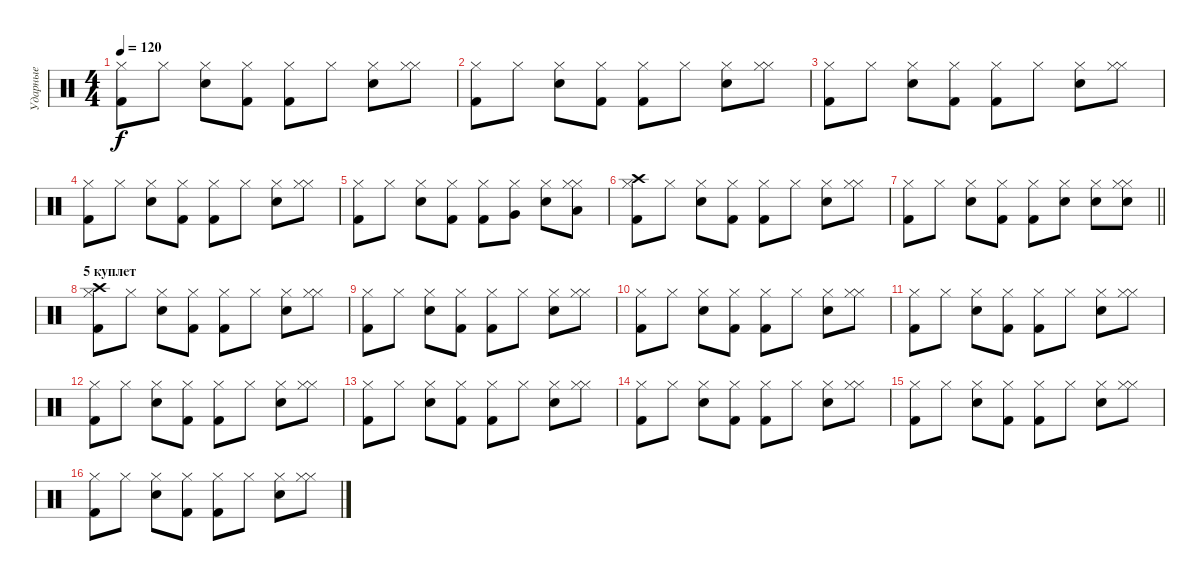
\track ("Ударные" "Ударные") {instrument percussion}
\staff {score}
\articulation defaults
\ts (4 4)
\tempo 120
\clef neutral
\ks c
("Kick (hit) 2" "Hi-Hat (closed)").8{dy f} "Hi-Hat (closed)".8 ("Electric Snare (hit)" "Hi-Hat (closed)").8 ("Kick (hit) 2" "Hi-Hat (closed)").8 ("Kick (hit) 2" "Hi-Hat (closed)").8 "Hi-Hat (closed)".8 ("Electric Snare (hit)" "Hi-Hat (closed)").8 ("Hi-Hat (closed)" "Hi-Hat (closed)").8 |
("Kick (hit) 2" "Hi-Hat (closed)").8 "Hi-Hat (closed)".8 ("Electric Snare (hit)" "Hi-Hat (closed)").8 ("Kick (hit) 2" "Hi-Hat (closed)").8 ("Kick (hit) 2" "Hi-Hat (closed)").8 "Hi-Hat (closed)".8 ("Electric Snare (hit)" "Hi-Hat (closed)").8 ("Hi-Hat (closed)" "Hi-Hat (closed)").8 |
("Kick (hit) 2" "Hi-Hat (closed)").8 "Hi-Hat (closed)".8 ("Electric Snare (hit)" "Hi-Hat (closed)").8 ("Kick (hit) 2" "Hi-Hat (closed)").8 ("Kick (hit) 2" "Hi-Hat (closed)").8 "Hi-Hat (closed)".8 ("Electric Snare (hit)" "Hi-Hat (closed)").8 ("Hi-Hat (closed)" "Hi-Hat (closed)").8 |
("Kick (hit) 2" "Hi-Hat (closed)").8 "Hi-Hat (closed)".8 ("Electric Snare (hit)" "Hi-Hat (closed)").8 ("Kick (hit) 2" "Hi-Hat (closed)").8 ("Kick (hit) 2" "Hi-Hat (closed)").8 "Hi-Hat (closed)".8 ("Electric Snare (hit)" "Hi-Hat (closed)").8 ("Hi-Hat (closed)" "Hi-Hat (closed)").8 |
("Kick (hit) 2" "Hi-Hat (closed)").8 "Hi-Hat (closed)".8 ("Electric Snare (hit)" "Hi-Hat (closed)").8 ("Kick (hit) 2" "Hi-Hat (closed)").8 ("Kick (hit) 2" "Hi-Hat (closed)").8 ("Hi-Hat (closed)" "Very Low Tom (hit)").8 ("Electric Snare (hit)" "Hi-Hat (closed)").8 ("Hi-Hat (closed)" "Hi-Hat (closed)" "Low Tom (hit)").8 |
("Kick (hit) 2" "Hi-Hat (closed)" "Crash high (hit)").8 "Hi-Hat (closed)".8 ("Electric Snare (hit)" "Hi-Hat (closed)").8 ("Kick (hit) 2" "Hi-Hat (closed)").8 ("Kick (hit) 2" "Hi-Hat (closed)").8 "Hi-Hat (closed)".8 ("Electric Snare (hit)" "Hi-Hat (closed)").8 ("Hi-Hat (closed)" "Hi-Hat (closed)").8 |
\barLineRight lightlight
("Kick (hit) 2" "Hi-Hat (closed)").8 "Hi-Hat (closed)".8 ("Electric Snare (hit)" "Hi-Hat (closed)").8 ("Kick (hit) 2" "Hi-Hat (closed)").8 ("Kick (hit) 2" "Hi-Hat (closed)").8 ("Hi-Hat (closed)" "Electric Snare (hit)").8 ("Electric Snare (hit)" "Hi-Hat (closed)").8 ("Hi-Hat (closed)" "Hi-Hat (closed)" "Electric Snare (hit)").8 |
\section ("" "5 куплет")
("Kick (hit) 2" "Hi-Hat (closed)" "Crash high (hit)").8 "Hi-Hat (closed)".8 ("Electric Snare (hit)" "Hi-Hat (closed)").8 ("Kick (hit) 2" "Hi-Hat (closed)").8 ("Kick (hit) 2" "Hi-Hat (closed)").8 "Hi-Hat (closed)".8 ("Electric Snare (hit)" "Hi-Hat (closed)").8 ("Hi-Hat (closed)" "Hi-Hat (closed)").8 |
("Kick (hit) 2" "Hi-Hat (closed)").8 "Hi-Hat (closed)".8 ("Electric Snare (hit)" "Hi-Hat (closed)").8 ("Kick (hit) 2" "Hi-Hat (closed)").8 ("Kick (hit) 2" "Hi-Hat (closed)").8 "Hi-Hat (closed)".8 ("Electric Snare (hit)" "Hi-Hat (closed)").8 ("Hi-Hat (closed)" "Hi-Hat (closed)").8 |
("Kick (hit) 2" "Hi-Hat (closed)").8 "Hi-Hat (closed)".8 ("Electric Snare (hit)" "Hi-Hat (closed)").8 ("Kick (hit) 2" "Hi-Hat (closed)").8 ("Kick (hit) 2" "Hi-Hat (closed)").8 "Hi-Hat (closed)".8 ("Electric Snare (hit)" "Hi-Hat (closed)").8 ("Hi-Hat (closed)" "Hi-Hat (closed)").8 |
("Kick (hit) 2" "Hi-Hat (closed)").8 "Hi-Hat (closed)".8 ("Electric Snare (hit)" "Hi-Hat (closed)").8 ("Kick (hit) 2" "Hi-Hat (closed)").8 ("Kick (hit) 2" "Hi-Hat (closed)").8 "Hi-Hat (closed)".8 ("Electric Snare (hit)" "Hi-Hat (closed)").8 ("Hi-Hat (closed)" "Hi-Hat (closed)").8 |
("Kick (hit) 2" "Hi-Hat (closed)").8 "Hi-Hat (closed)".8 ("Electric Snare (hit)" "Hi-Hat (closed)").8 ("Kick (hit) 2" "Hi-Hat (closed)").8 ("Kick (hit) 2" "Hi-Hat (closed)").8 "Hi-Hat (closed)".8 ("Electric Snare (hit)" "Hi-Hat (closed)").8 ("Hi-Hat (closed)" "Hi-Hat (closed)").8 |
("Kick (hit) 2" "Hi-Hat (closed)").8 "Hi-Hat (closed)".8 ("Electric Snare (hit)" "Hi-Hat (closed)").8 ("Kick (hit) 2" "Hi-Hat (closed)").8 ("Kick (hit) 2" "Hi-Hat (closed)").8 "Hi-Hat (closed)".8 ("Electric Snare (hit)" "Hi-Hat (closed)").8 ("Hi-Hat (closed)" "Hi-Hat (closed)").8 |
("Kick (hit) 2" "Hi-Hat (closed)").8 "Hi-Hat (closed)".8 ("Electric Snare (hit)" "Hi-Hat (closed)").8 ("Kick (hit) 2" "Hi-Hat (closed)").8 ("Kick (hit) 2" "Hi-Hat (closed)").8 "Hi-Hat (closed)".8 ("Electric Snare (hit)" "Hi-Hat (closed)").8 ("Hi-Hat (closed)" "Hi-Hat (closed)").8 |
("Kick (hit) 2" "Hi-Hat (closed)").8 "Hi-Hat (closed)".8 ("Electric Snare (hit)" "Hi-Hat (closed)").8 ("Kick (hit) 2" "Hi-Hat (closed)").8 ("Kick (hit) 2" "Hi-Hat (closed)").8 "Hi-Hat (closed)".8 ("Electric Snare (hit)" "Hi-Hat (closed)").8 ("Hi-Hat (closed)" "Hi-Hat (closed)").8 |
("Kick (hit) 2" "Hi-Hat (closed)").8 "Hi-Hat (closed)".8 ("Electric Snare (hit)" "Hi-Hat (closed)").8 ("Kick (hit) 2" "Hi-Hat (closed)").8 ("Kick (hit) 2" "Hi-Hat (closed)").8 "Hi-Hat (closed)".8 ("Electric Snare (hit)" "Hi-Hat (closed)").8 ("Hi-Hat (closed)" "Hi-Hat (closed)").8
